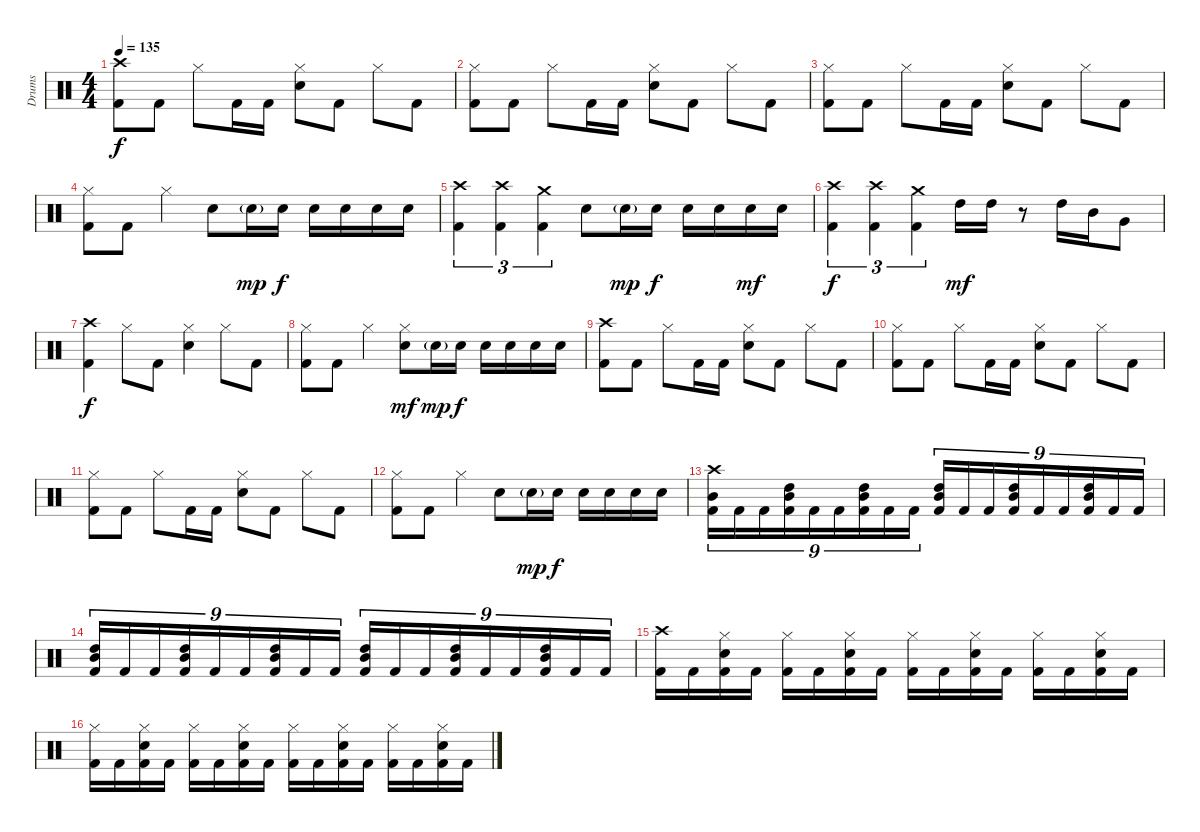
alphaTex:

\track ("Drums" "Drums") {instrument percussion}
\staff {score}
\articulation defaults
\ts (4 4)
\tempo 135
\clef neutral
\ks c
("Crash high (hit)" "Kick (hit) 2").8{dy f} "Kick (hit) 2".8 "Hi-Hat (closed)".8 "Kick (hit) 2".16 "Kick (hit) 2".16 ("Hi-Hat (closed)" "Snare (hit) 2").8 "Kick (hit) 2".8 "Hi-Hat (closed)".8 "Kick (hit) 2".8 |
("Hi-Hat (closed)" "Kick (hit) 2").8 "Kick (hit) 2".8 "Hi-Hat (closed)".8 "Kick (hit) 2".16 "Kick (hit) 2".16 ("Hi-Hat (closed)" "Snare (hit) 2").8 "Kick (hit) 2".8 "Hi-Hat (closed)".8 "Kick (hit) 2".8 |
("Hi-Hat (closed)" "Kick (hit) 2").8 "Kick (hit) 2".8 "Hi-Hat (closed)".8 "Kick (hit) 2".16 "Kick (hit) 2".16 ("Hi-Hat (closed)" "Snare (hit) 2").8 "Kick (hit) 2".8 "Hi-Hat (closed)".8 "Kick (hit) 2".8 |
("Hi-Hat (closed)" "Kick (hit) 2").8 "Kick (hit) 2".8 "Hi-Hat (closed)".4 "Snare (hit) 2".8 "Snare (hit) 2"{g}.16{dy mp} "Snare (hit) 2".16{dy f} "Snare (hit) 2".16 "Snare (hit) 2".16 "Snare (hit) 2".16 "Snare (hit) 2".16 |
("Crash high (hit)" "Kick (hit) 2").4{tu (3 2)} ("Crash high (hit)" "Kick (hit) 2").4{tu (3 2)} ("Crash medium (hit)" "Kick (hit) 2").4{tu (3 2)} "Snare (hit) 2".8 "Snare (hit) 2"{g}.16{dy mp} "Snare (hit) 2".16{dy f} "Snare (hit) 2".16 "Snare (hit) 2".16 "Snare (hit) 2".16{dy mf} "Snare (hit) 2".16 |
("Crash high (hit)" "Kick (hit) 2").4{tu (3 2) dy f} ("Crash high (hit)" "Kick (hit) 2").4{tu (3 2)} ("Crash medium (hit)" "Kick (hit) 2").4{tu (3 2)} "High Tom (hit)".16{dy mf} "High Tom (hit)".16 r.8 "High Tom (hit)".16 "Mid Tom (hit)".16 "Very Low Tom (hit)".8 |
("Crash high (hit)" "Kick (hit) 2").4{dy f} "Hi-Hat (closed)".8 "Kick (hit) 2".8 ("Hi-Hat (closed)" "Snare (hit) 2").4 "Hi-Hat (closed)".8 "Kick (hit) 2".8 |
("Hi-Hat (closed)" "Kick (hit) 2").8 "Kick (hit) 2".8 "Hi-Hat (closed)".4 ("Hi-Hat (closed)" "Snare (hit) 2").8{dy mf} "Snare (hit) 2"{g}.16{dy mp} "Snare (hit) 2".16{dy f} "Snare (hit) 2".16 "Snare (hit) 2".16 "Snare (hit) 2".16 "Snare (hit) 2".16 |
("Crash high (hit)" "Kick (hit) 2").8 "Kick (hit) 2".8 "Hi-Hat (closed)".8 "Kick (hit) 2".16 "Kick (hit) 2".16 ("Hi-Hat (closed)" "Snare (hit) 2").8 "Kick (hit) 2".8 "Hi-Hat (closed)".8 "Kick (hit) 2".8 |
("Hi-Hat (closed)" "Kick (hit) 2").8 "Kick (hit) 2".8 "Hi-Hat (closed)".8 "Kick (hit) 2".16 "Kick (hit) 2".16 ("Hi-Hat (closed)" "Snare (hit) 2").8 "Kick (hit) 2".8 "Hi-Hat (closed)".8 "Kick (hit) 2".8 |
("Hi-Hat (closed)" "Kick (hit) 2").8 "Kick (hit) 2".8 "Hi-Hat (closed)".8 "Kick (hit) 2".16 "Kick (hit) 2".16 ("Hi-Hat (closed)" "Snare (hit) 2").8 "Kick (hit) 2".8 "Hi-Hat (closed)".8 "Kick (hit) 2".8 |
("Hi-Hat (closed)" "Kick (hit) 2").8 "Kick (hit) 2".8 "Hi-Hat (closed)".4 "Snare (hit) 2".8 "Snare (hit) 2"{g}.16{dy mp} "Snare (hit) 2".16{dy f} "Snare (hit) 2".16 "Snare (hit) 2".16 "Snare (hit) 2".16 "Snare (hit) 2".16 |
("Crash high (hit)" "Mid Tom (hit)" "Kick (hit) 2").16{tu (9 8)} "Kick (hit) 2".16{tu (9 8)} "Kick (hit) 2".16{tu (9 8)} ("High Tom (hit)" "Mid Tom (hit)" "Kick (hit) 2").16{tu (9 8)} "Kick (hit) 2".16{tu (9 8)} "Kick (hit) 2".16{tu (9 8)} ("High Tom (hit)" "Mid Tom (hit)" "Kick (hit) 2").16{tu (9 8)} "Kick (hit) 2".16{tu (9 8)} "Kick (hit) 2".16{tu (9 8)} ("High Tom (hit)" "Mid Tom (hit)" "Kick (hit) 2").16{tu (9 8)} "Kick (hit) 2".16{tu (9 8)} "Kick (hit) 2".16{tu (9 8)} ("High Tom (hit)" "Mid Tom (hit)" "Kick (hit) 2").16{tu (9 8)} "Kick (hit) 2".16{tu (9 8)} "Kick (hit) 2".16{tu (9 8)} ("High Tom (hit)" "Mid Tom (hit)" "Kick (hit) 2").16{tu (9 8)} "Kick (hit) 2".16{tu (9 8)} "Kick (hit) 2".16{tu (9 8)} |
("High Tom (hit)" "Mid Tom (hit)" "Kick (hit) 2").16{tu (9 8)} "Kick (hit) 2".16{tu (9 8)} "Kick (hit) 2".16{tu (9 8)} ("High Tom (hit)" "Mid Tom (hit)" "Kick (hit) 2").16{tu (9 8)} "Kick (hit) 2".16{tu (9 8)} "Kick (hit) 2".16{tu (9 8)} ("High Tom (hit)" "Mid Tom (hit)" "Kick (hit) 2").16{tu (9 8)} "Kick (hit) 2".16{tu (9 8)} "Kick (hit) 2".16{tu (9 8)} ("High Tom (hit)" "Mid Tom (hit)" "Kick (hit) 2").16{tu (9 8)} "Kick (hit) 2".16{tu (9 8)} "Kick (hit) 2".16{tu (9 8)} ("High Tom (hit)" "Mid Tom (hit)" "Kick (hit) 2").16{tu (9 8)} "Kick (hit) 2".16{tu (9 8)} "Kick (hit) 2".16{tu (9 8)} ("High Tom (hit)" "Mid Tom (hit)" "Kick (hit) 2").16{tu (9 8)} "Kick (hit) 2".16{tu (9 8)} "Kick (hit) 2".16{tu (9 8)} |
("Crash high (hit)" "Kick (hit) 2").16 "Kick (hit) 2".16 ("Hi-Hat (closed)" "Snare (hit) 2" "Kick (hit) 2").16 "Kick (hit) 2".16 ("Hi-Hat (closed)" "Kick (hit) 2").16 "Kick (hit) 2".16 ("Hi-Hat (closed)" "Snare (hit) 2" "Kick (hit) 2").16 "Kick (hit) 2".16 ("Hi-Hat (closed)" "Kick (hit) 2").16 "Kick (hit) 2".16 ("Hi-Hat (closed)" "Snare (hit) 2" "Kick (hit) 2").16 "Kick (hit) 2".16 ("Hi-Hat (closed)" "Kick (hit) 2").16 "Kick (hit) 2".16 ("Hi-Hat (closed)" "Snare (hit) 2" "Kick (hit) 2").16 "Kick (hit) 2".16 |
("Hi-Hat (closed)" "Kick (hit) 2").16 "Kick (hit) 2".16 ("Hi-Hat (closed)" "Snare (hit) 2" "Kick (hit) 2").16 "Kick (hit) 2".16 ("Hi-Hat (closed)" "Kick (hit) 2").16 "Kick (hit) 2".16 ("Hi-Hat (closed)" "Snare (hit) 2" "Kick (hit) 2").16 "Kick (hit) 2".16 ("Hi-Hat (closed)" "Kick (hit) 2").16 "Kick (hit) 2".16 ("Hi-Hat (closed)" "Snare (hit) 2" "Kick (hit) 2").16 "Kick (hit) 2".16 ("Hi-Hat (closed)" "Kick (hit) 2").16 "Kick (hit) 2".16 ("Hi-Hat (closed)" "Snare (hit) 2" "Kick (hit) 2").16 "Kick (hit) 2".16
